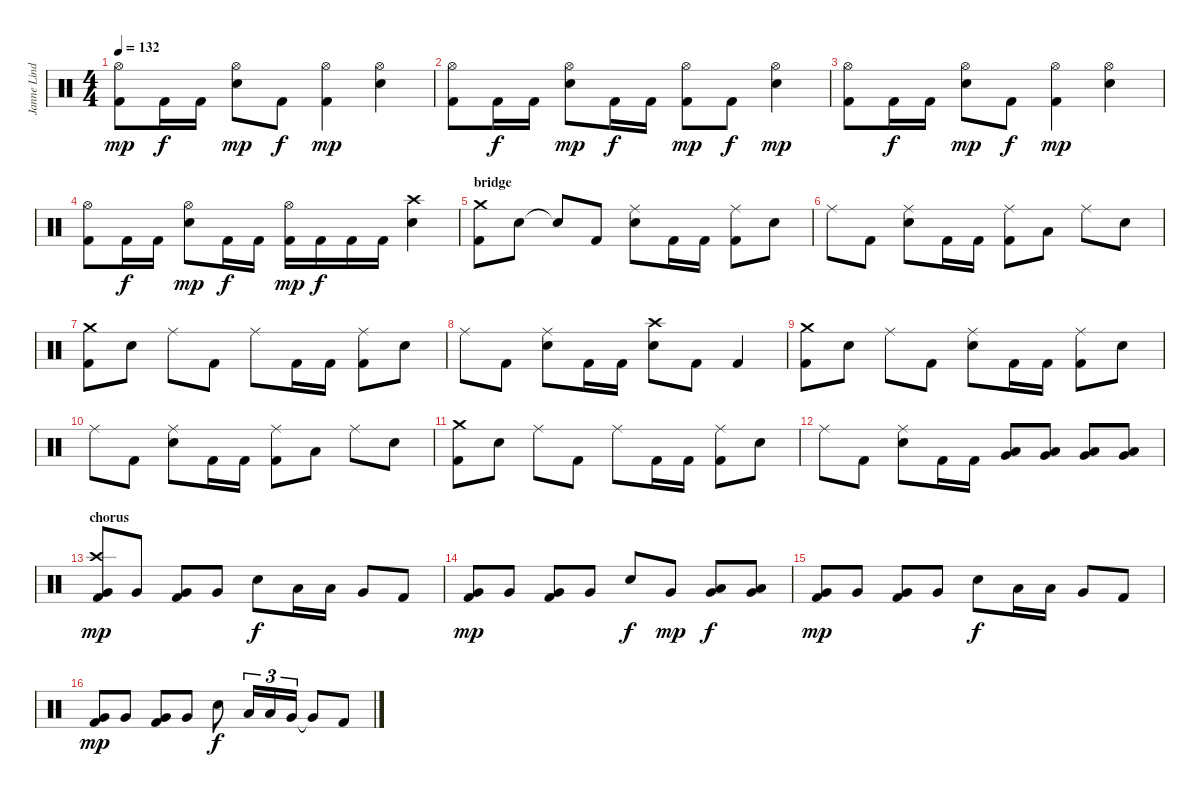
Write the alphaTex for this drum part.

\track ("Janne Lindh" "Janne Lind") {instrument percussion}
\staff {score}
\articulation defaults
\ts (4 4)
\tempo 132
\clef neutral
\ks c
("Kick (hit) 2" "Hi-Hat (open)").8{dy mp} "Kick (hit) 2".16{dy f} "Kick (hit) 2".16 ("Hi-Hat (open)" "Snare (hit) 2").8{dy mp} "Kick (hit) 2".8{dy f} ("Kick (hit) 2" "Hi-Hat (open)").4{dy mp} ("Hi-Hat (open)" "Snare (hit) 2").4 |
("Kick (hit) 2" "Hi-Hat (open)").8 "Kick (hit) 2".16{dy f} "Kick (hit) 2".16 ("Hi-Hat (open)" "Snare (hit) 2").8{dy mp} "Kick (hit) 2".16{dy f} "Kick (hit) 2".16 ("Kick (hit) 2" "Hi-Hat (open)").8{dy mp} "Kick (hit) 2".8{dy f} ("Hi-Hat (open)" "Snare (hit) 2").4{dy mp} |
("Kick (hit) 2" "Hi-Hat (open)").8 "Kick (hit) 2".16{dy f} "Kick (hit) 2".16 ("Hi-Hat (open)" "Snare (hit) 2").8{dy mp} "Kick (hit) 2".8{dy f} ("Kick (hit) 2" "Hi-Hat (open)").4{dy mp} ("Hi-Hat (open)" "Snare (hit) 2").4 |
("Kick (hit) 2" "Hi-Hat (open)").8 "Kick (hit) 2".16{dy f} "Kick (hit) 2".16 ("Hi-Hat (open)" "Snare (hit) 2").8{dy mp} "Kick (hit) 2".16{dy f} "Kick (hit) 2".16 ("Kick (hit) 2" "Hi-Hat (open)").16{dy mp} "Kick (hit) 2".16{dy f} "Kick (hit) 2".16 "Kick (hit) 2".16 ("Crash high (hit)" "Snare (hit) 2").4 |
\section ("" "bridge")
("Kick (hit) 2" "Crash medium (hit)").8 "Snare (hit) 2".8 "Snare (hit)"{t}.8 "Kick (hit) 2".8 ("Ride (middle)" "Snare (hit) 2").8 "Kick (hit) 2".16 "Kick (hit) 2".16 ("Kick (hit) 2" "Ride (middle)").8 "Snare (hit) 2".8 |
"Ride (middle)".8 "Kick (hit) 2".8 ("Ride (middle)" "Snare (hit) 2").8 "Kick (hit) 2".16 "Kick (hit) 2".16 ("Kick (hit) 2" "Ride (middle)").8 "Low Tom (hit)".8 "Ride (middle)".8 "Snare (hit) 2".8 |
("Kick (hit) 2" "Crash medium (hit)").8 "Snare (hit) 2".8 "Ride (middle)".8 "Kick (hit) 2".8 "Ride (middle)".8 "Kick (hit) 2".16 "Kick (hit) 2".16 ("Kick (hit) 2" "Ride (middle)").8 "Snare (hit) 2".8 |
"Ride (middle)".8 "Kick (hit) 2".8 ("Ride (middle)" "Snare (hit) 2").8 "Kick (hit) 2".16 "Kick (hit) 2".16 ("Crash high (hit)" "Snare (hit) 2").8 "Kick (hit) 2".8 "Kick (hit) 2".4 |
("Kick (hit) 2" "Crash medium (hit)").8 "Snare (hit) 2".8 "Ride (middle)".8 "Kick (hit) 2".8 ("Ride (middle)" "Snare (hit) 2").8 "Kick (hit) 2".16 "Kick (hit) 2".16 ("Kick (hit) 2" "Ride (middle)").8 "Snare (hit) 2".8 |
"Ride (middle)".8 "Kick (hit) 2".8 ("Ride (middle)" "Snare (hit) 2").8 "Kick (hit) 2".16 "Kick (hit) 2".16 ("Kick (hit) 2" "Ride (middle)").8 "Low Tom (hit)".8 "Ride (middle)".8 "Snare (hit) 2".8 |
("Kick (hit) 2" "Crash medium (hit)").8 "Snare (hit) 2".8 "Ride (middle)".8 "Kick (hit) 2".8 "Ride (middle)".8 "Kick (hit) 2".16 "Kick (hit) 2".16 ("Kick (hit) 2" "Ride (middle)").8 "Snare (hit) 2".8 |
"Ride (middle)".8 "Kick (hit) 2".8 ("Ride (middle)" "Snare (hit) 2").8 "Kick (hit) 2".16 "Kick (hit) 2".16 ("Very Low Tom (hit)" "Low Tom (hit)").8 ("Very Low Tom (hit)" "Low Tom (hit)").8 ("Very Low Tom (hit)" "Low Tom (hit)").8 ("Very Low Tom (hit)" "Low Tom (hit)").8 |
\section ("" "chorus")
("Kick (hit) 2" "Crash high (hit)" "Very Low Tom (hit)").8{dy mp} "Very Low Tom (hit)".8 ("Kick (hit) 2" "Very Low Tom (hit)").8 "Very Low Tom (hit)".8 "Snare (hit) 2".8{dy f} "Low Tom (hit)".16 "Low Tom (hit)".16 "Very Low Tom (hit)".8 "Kick (hit) 2".8 |
("Kick (hit) 2" "Very Low Tom (hit)").8{dy mp} "Very Low Tom (hit)".8 ("Kick (hit) 2" "Very Low Tom (hit)").8 "Very Low Tom (hit)".8 "Snare (hit) 2".8{dy f} "Very Low Tom (hit)".8{dy mp} ("Very Low Tom (hit)" "Low Tom (hit)").8{dy f} ("Very Low Tom (hit)" "Low Tom (hit)").8 |
("Kick (hit) 2" "Very Low Tom (hit)").8{dy mp} "Very Low Tom (hit)".8 ("Kick (hit) 2" "Very Low Tom (hit)").8 "Very Low Tom (hit)".8 "Snare (hit) 2".8{dy f} "Low Tom (hit)".16 "Low Tom (hit)".16 "Very Low Tom (hit)".8 "Kick (hit) 2".8 |
("Kick (hit) 2" "Very Low Tom (hit)").8{dy mp} "Very Low Tom (hit)".8 ("Kick (hit) 2" "Very Low Tom (hit)").8 "Very Low Tom (hit)".8 "Snare (hit) 2".8{dy f} "Low Tom (hit)".16{tu (3 2)} "Low Tom (hit)".16{tu (3 2)} "Very Low Tom (hit)".16{tu (3 2)} "Very Low Tom (hit)"{t}.8 "Kick (hit) 2".8
